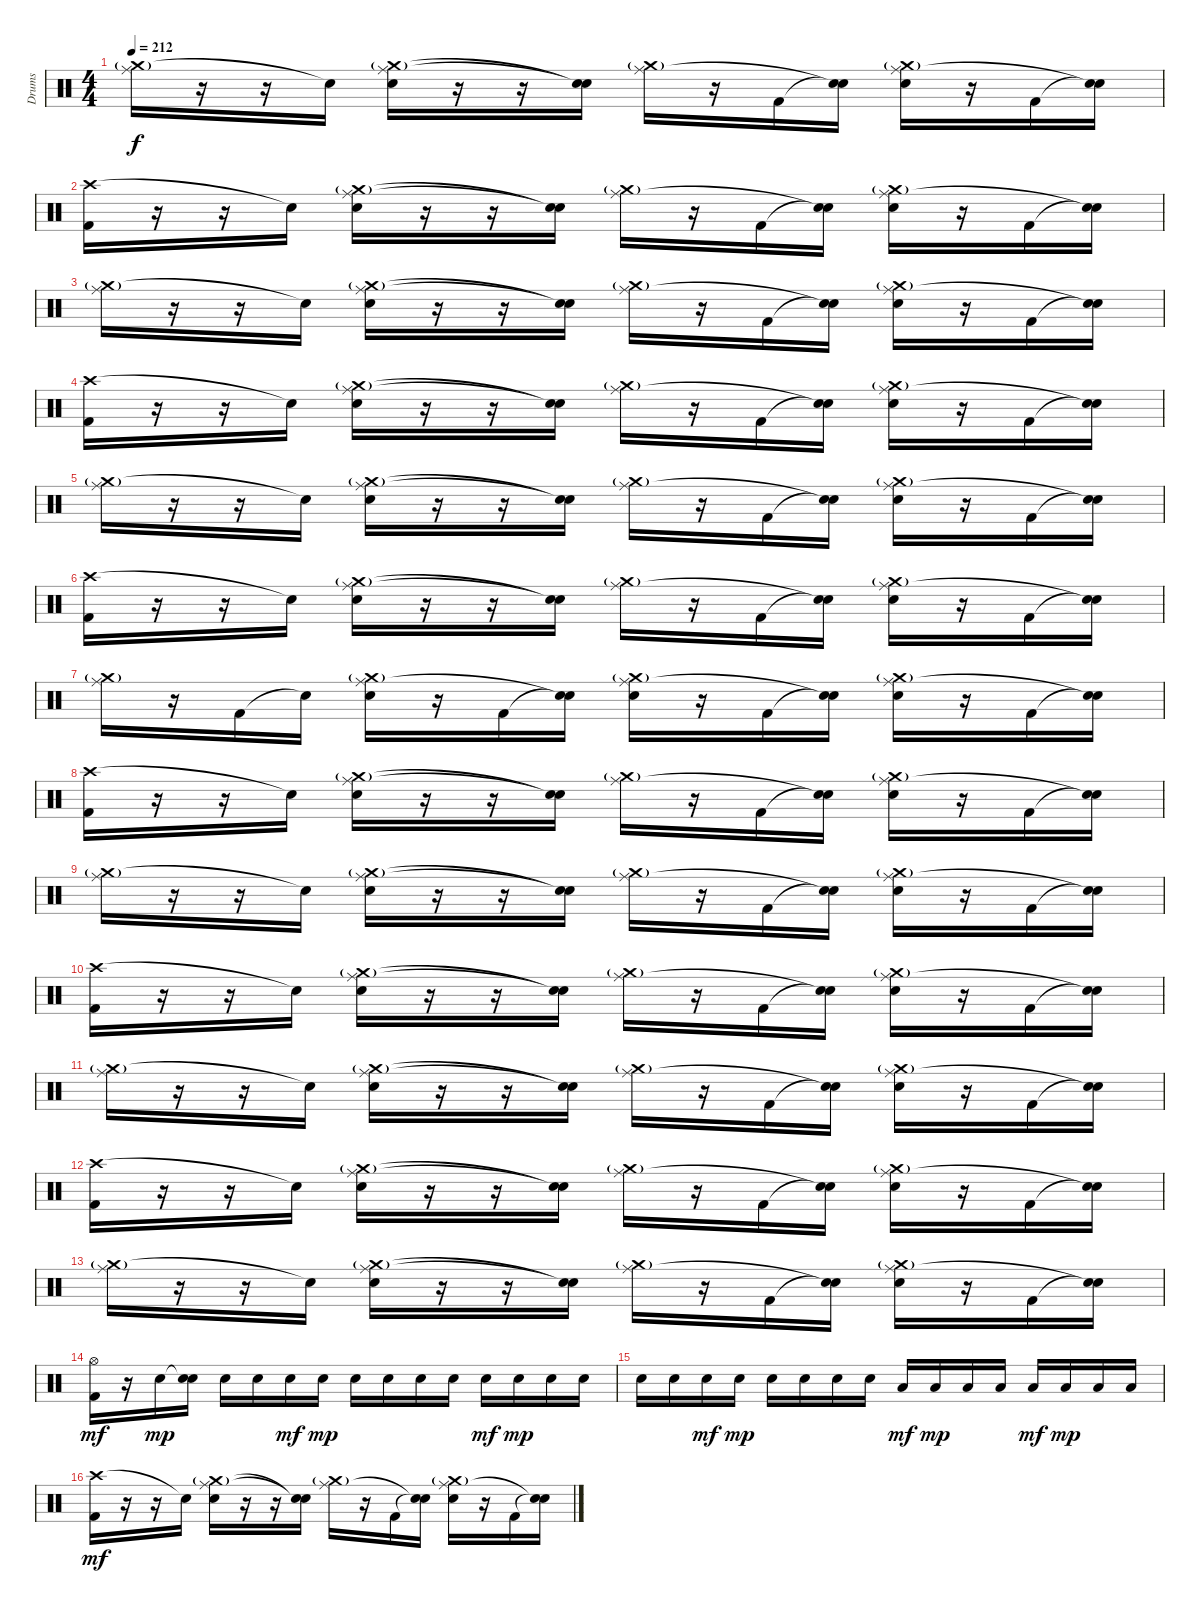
\track ("Drums" "Drums") {instrument percussion}
\staff {score}
\articulation defaults
\ts (4 4)
\tempo 212
\clef neutral
\ks c
("Crash medium (hit)"{g} "Ride (middle)").16{dy f} r.16 r.16 "Snare (hit)"{t}.16 ("Crash medium (hit)"{g} "Ride (middle)" "Electric Snare (hit)").16 r.16 r.16 ("Snare (hit)"{t} "Snare (hit)"{t}).16 ("Crash medium (hit)"{g} "Ride (middle)").16 r.16 "Kick (hit) 2".16 ("Snare (hit)"{t} "Snare (hit)"{t}).16 ("Crash medium (hit)"{g} "Ride (middle)" "Electric Snare (hit)").16 r.16 "Kick (hit) 2".16 ("Snare (hit)"{t} "Snare (hit)"{t}).16 |
("Crash high (hit)" "Kick (hit) 2").16 r.16 r.16 "Snare (hit)"{t}.16 ("Crash medium (hit)"{g} "Ride (middle)" "Electric Snare (hit)").16 r.16 r.16 ("Snare (hit)"{t} "Snare (hit)"{t}).16 ("Crash medium (hit)"{g} "Ride (middle)").16 r.16 "Kick (hit) 2".16 ("Snare (hit)"{t} "Snare (hit)"{t}).16 ("Crash medium (hit)"{g} "Ride (middle)" "Electric Snare (hit)").16 r.16 "Kick (hit) 2".16 ("Snare (hit)"{t} "Snare (hit)"{t}).16 |
("Crash medium (hit)"{g} "Ride (middle)").16 r.16 r.16 "Snare (hit)"{t}.16 ("Crash medium (hit)"{g} "Ride (middle)" "Electric Snare (hit)").16 r.16 r.16 ("Snare (hit)"{t} "Snare (hit)"{t}).16 ("Crash medium (hit)"{g} "Ride (middle)").16 r.16 "Kick (hit) 2".16 ("Snare (hit)"{t} "Snare (hit)"{t}).16 ("Crash medium (hit)"{g} "Ride (middle)" "Electric Snare (hit)").16 r.16 "Kick (hit) 2".16 ("Snare (hit)"{t} "Snare (hit)"{t}).16 |
("Crash high (hit)" "Kick (hit) 2").16 r.16 r.16 "Snare (hit)"{t}.16 ("Crash medium (hit)"{g} "Ride (middle)" "Electric Snare (hit)").16 r.16 r.16 ("Snare (hit)"{t} "Snare (hit)"{t}).16 ("Crash medium (hit)"{g} "Ride (middle)").16 r.16 "Kick (hit) 2".16 ("Snare (hit)"{t} "Snare (hit)"{t}).16 ("Crash medium (hit)"{g} "Ride (middle)" "Electric Snare (hit)").16 r.16 "Kick (hit) 2".16 ("Snare (hit)"{t} "Snare (hit)"{t}).16 |
("Crash medium (hit)"{g} "Ride (middle)").16 r.16 r.16 "Snare (hit)"{t}.16 ("Crash medium (hit)"{g} "Ride (middle)" "Electric Snare (hit)").16 r.16 r.16 ("Snare (hit)"{t} "Snare (hit)"{t}).16 ("Crash medium (hit)"{g} "Ride (middle)").16 r.16 "Kick (hit) 2".16 ("Snare (hit)"{t} "Snare (hit)"{t}).16 ("Crash medium (hit)"{g} "Ride (middle)" "Electric Snare (hit)").16 r.16 "Kick (hit) 2".16 ("Snare (hit)"{t} "Snare (hit)"{t}).16 |
("Crash high (hit)" "Kick (hit) 2").16 r.16 r.16 "Snare (hit)"{t}.16 ("Crash medium (hit)"{g} "Ride (middle)" "Electric Snare (hit)").16 r.16 r.16 ("Snare (hit)"{t} "Snare (hit)"{t}).16 ("Crash medium (hit)"{g} "Ride (middle)").16 r.16 "Kick (hit) 2".16 ("Snare (hit)"{t} "Snare (hit)"{t}).16 ("Crash medium (hit)"{g} "Ride (middle)" "Electric Snare (hit)").16 r.16 "Kick (hit) 2".16 ("Snare (hit)"{t} "Snare (hit)"{t}).16 |
("Crash medium (hit)"{g} "Ride (middle)").16 r.16 "Kick (hit) 2".16 "Snare (hit)"{t}.16 ("Crash medium (hit)"{g} "Ride (middle)" "Electric Snare (hit)").16 r.16 "Kick (hit) 2".16 ("Snare (hit)"{t} "Snare (hit)"{t}).16 ("Crash medium (hit)"{g} "Ride (middle)" "Electric Snare (hit)").16 r.16 "Kick (hit) 2".16 ("Snare (hit)"{t} "Snare (hit)"{t}).16 ("Crash medium (hit)"{g} "Ride (middle)" "Electric Snare (hit)").16 r.16 "Kick (hit) 2".16 ("Snare (hit)"{t} "Snare (hit)"{t}).16 |
("Crash high (hit)" "Kick (hit) 2").16 r.16 r.16 "Snare (hit)"{t}.16 ("Crash medium (hit)"{g} "Ride (middle)" "Electric Snare (hit)").16 r.16 r.16 ("Snare (hit)"{t} "Snare (hit)"{t}).16 ("Crash medium (hit)"{g} "Ride (middle)").16 r.16 "Kick (hit) 2".16 ("Snare (hit)"{t} "Snare (hit)"{t}).16 ("Crash medium (hit)"{g} "Ride (middle)" "Electric Snare (hit)").16 r.16 "Kick (hit) 2".16 ("Snare (hit)"{t} "Snare (hit)"{t}).16 |
("Crash medium (hit)"{g} "Ride (middle)").16 r.16 r.16 "Snare (hit)"{t}.16 ("Crash medium (hit)"{g} "Ride (middle)" "Electric Snare (hit)").16 r.16 r.16 ("Snare (hit)"{t} "Snare (hit)"{t}).16 ("Crash medium (hit)"{g} "Ride (middle)").16 r.16 "Kick (hit) 2".16 ("Snare (hit)"{t} "Snare (hit)"{t}).16 ("Crash medium (hit)"{g} "Ride (middle)" "Electric Snare (hit)").16 r.16 "Kick (hit) 2".16 ("Snare (hit)"{t} "Snare (hit)"{t}).16 |
("Crash high (hit)" "Kick (hit) 2").16 r.16 r.16 "Snare (hit)"{t}.16 ("Crash medium (hit)"{g} "Ride (middle)" "Electric Snare (hit)").16 r.16 r.16 ("Snare (hit)"{t} "Snare (hit)"{t}).16 ("Crash medium (hit)"{g} "Ride (middle)").16 r.16 "Kick (hit) 2".16 ("Snare (hit)"{t} "Snare (hit)"{t}).16 ("Crash medium (hit)"{g} "Ride (middle)" "Electric Snare (hit)").16 r.16 "Kick (hit) 2".16 ("Snare (hit)"{t} "Snare (hit)"{t}).16 |
("Crash medium (hit)"{g} "Ride (middle)").16 r.16 r.16 "Snare (hit)"{t}.16 ("Crash medium (hit)"{g} "Ride (middle)" "Electric Snare (hit)").16 r.16 r.16 ("Snare (hit)"{t} "Snare (hit)"{t}).16 ("Crash medium (hit)"{g} "Ride (middle)").16 r.16 "Kick (hit) 2".16 ("Snare (hit)"{t} "Snare (hit)"{t}).16 ("Crash medium (hit)"{g} "Ride (middle)" "Electric Snare (hit)").16 r.16 "Kick (hit) 2".16 ("Snare (hit)"{t} "Snare (hit)"{t}).16 |
("Crash high (hit)" "Kick (hit) 2").16 r.16 r.16 "Snare (hit)"{t}.16 ("Crash medium (hit)"{g} "Ride (middle)" "Electric Snare (hit)").16 r.16 r.16 ("Snare (hit)"{t} "Snare (hit)"{t}).16 ("Crash medium (hit)"{g} "Ride (middle)").16 r.16 "Kick (hit) 2".16 ("Snare (hit)"{t} "Snare (hit)"{t}).16 ("Crash medium (hit)"{g} "Ride (middle)" "Electric Snare (hit)").16 r.16 "Kick (hit) 2".16 ("Snare (hit)"{t} "Snare (hit)"{t}).16 |
("Crash medium (hit)"{g} "Ride (middle)").16 r.16 r.16 "Snare (hit)"{t}.16 ("Crash medium (hit)"{g} "Ride (middle)" "Electric Snare (hit)").16 r.16 r.16 ("Snare (hit)"{t} "Snare (hit)"{t}).16 ("Crash medium (hit)"{g} "Ride (middle)").16 r.16 "Kick (hit) 2".16 ("Snare (hit)"{t} "Snare (hit)"{t}).16 ("Crash medium (hit)"{g} "Ride (middle)" "Electric Snare (hit)").16 r.16 "Kick (hit) 2".16 ("Snare (hit)"{t} "Snare (hit)"{t}).16 |
("Hi-Hat (open)" "Kick (hit) 2").16{dy mf} r.16 "Electric Snare (hit)".16{dy mp} ("Snare (hit)"{t} "Electric Snare (hit)").16 "Electric Snare (hit)".16 "Electric Snare (hit)".16 "Electric Snare (hit)".16{dy mf} "Electric Snare (hit)".16{dy mp} "Electric Snare (hit)".16 "Electric Snare (hit)".16 "Electric Snare (hit)".16 "Electric Snare (hit)".16 "Electric Snare (hit)".16{dy mf} "Electric Snare (hit)".16{dy mp} "Electric Snare (hit)".16 "Electric Snare (hit)".16 |
"Electric Snare (hit)".16 "Electric Snare (hit)".16 "Electric Snare (hit)".16{dy mf} "Electric Snare (hit)".16{dy mp} "Electric Snare (hit)".16 "Electric Snare (hit)".16 "Electric Snare (hit)".16 "Electric Snare (hit)".16 "Low Tom (hit)".16{dy mf} "Low Tom (hit)".16{dy mp} "Low Tom (hit)".16 "Low Tom (hit)".16 "Low Floor Tom (hit)".16{dy mf} "Low Floor Tom (hit)".16{dy mp} "Low Floor Tom (hit)".16 "Low Floor Tom (hit)".16 |
("Crash high (hit)" "Kick (hit) 2").16{dy mf} r.16 r.16 "Snare (hit)"{t}.16 ("Crash medium (hit)"{g} "Ride (middle)" "Electric Snare (hit)").16 r.16 r.16 ("Snare (hit)"{t} "Snare (hit)"{t}).16 ("Crash medium (hit)"{g} "Ride (middle)").16 r.16 "Kick (hit) 2".16 ("Snare (hit)"{t} "Snare (hit)"{t}).16 ("Crash medium (hit)"{g} "Ride (middle)" "Electric Snare (hit)").16 r.16 "Kick (hit) 2".16 ("Snare (hit)"{t} "Snare (hit)"{t}).16
